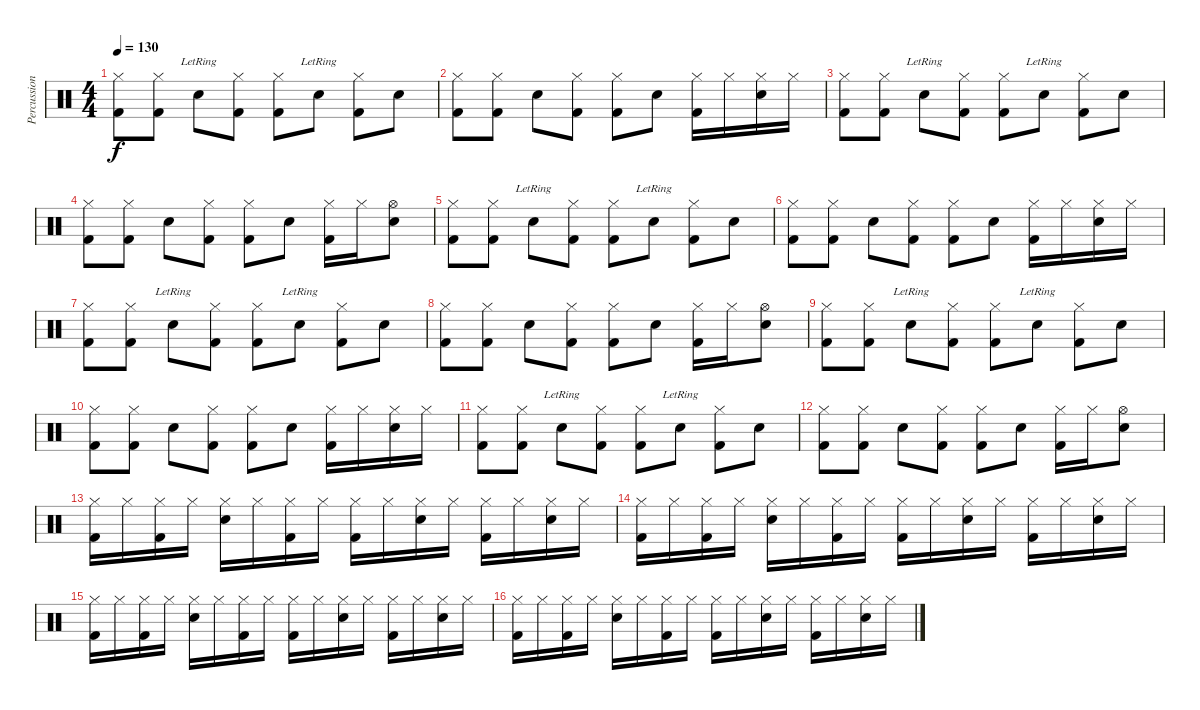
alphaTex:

\track ("Percussion" "Percussion") {instrument percussion}
\staff {score}
\articulation defaults
\ts (4 4)
\tempo 130
\clef neutral
\ks c
("Hi-Hat (closed)" "Kick (hit) 2").8{dy f} ("Hi-Hat (closed)" "Kick (hit) 2").8 "Snare (hit) 2"{lr}.8 ("Hi-Hat (closed)" "Kick (hit) 2").8 ("Hi-Hat (closed)" "Kick (hit) 2").8 "Snare (hit) 2"{lr}.8 ("Hi-Hat (closed)" "Kick (hit) 2").8 "Snare (hit) 2".8 |
("Hi-Hat (closed)" "Kick (hit) 2").8 ("Hi-Hat (closed)" "Kick (hit) 2").8 "Snare (hit) 2".8 ("Hi-Hat (closed)" "Kick (hit) 2").8 ("Hi-Hat (closed)" "Kick (hit) 2").8 "Snare (hit) 2".8 ("Hi-Hat (closed)" "Kick (hit) 2").16 "Hi-Hat (closed)".16 ("Hi-Hat (closed)" "Snare (hit) 2").16 "Hi-Hat (closed)".16 |
("Hi-Hat (closed)" "Kick (hit) 2").8 ("Hi-Hat (closed)" "Kick (hit) 2").8 "Snare (hit) 2"{lr}.8 ("Hi-Hat (closed)" "Kick (hit) 2").8 ("Hi-Hat (closed)" "Kick (hit) 2").8 "Snare (hit) 2"{lr}.8 ("Hi-Hat (closed)" "Kick (hit) 2").8 "Snare (hit) 2".8 |
("Hi-Hat (closed)" "Kick (hit) 2").8 ("Hi-Hat (closed)" "Kick (hit) 2").8 "Snare (hit) 2".8 ("Hi-Hat (closed)" "Kick (hit) 2").8 ("Hi-Hat (closed)" "Kick (hit) 2").8 "Snare (hit) 2".8 ("Hi-Hat (closed)" "Kick (hit) 2").16 "Hi-Hat (closed)".16 ("Hi-Hat (open)" "Snare (hit) 2").8 |
("Hi-Hat (closed)" "Kick (hit) 2").8 ("Hi-Hat (closed)" "Kick (hit) 2").8 "Snare (hit) 2"{lr}.8 ("Hi-Hat (closed)" "Kick (hit) 2").8 ("Hi-Hat (closed)" "Kick (hit) 2").8 "Snare (hit) 2"{lr}.8 ("Hi-Hat (closed)" "Kick (hit) 2").8 "Snare (hit) 2".8 |
("Hi-Hat (closed)" "Kick (hit) 2").8 ("Hi-Hat (closed)" "Kick (hit) 2").8 "Snare (hit) 2".8 ("Hi-Hat (closed)" "Kick (hit) 2").8 ("Hi-Hat (closed)" "Kick (hit) 2").8 "Snare (hit) 2".8 ("Hi-Hat (closed)" "Kick (hit) 2").16 "Hi-Hat (closed)".16 ("Hi-Hat (closed)" "Snare (hit) 2").16 "Hi-Hat (closed)".16 |
("Hi-Hat (closed)" "Kick (hit) 2").8 ("Hi-Hat (closed)" "Kick (hit) 2").8 "Snare (hit) 2"{lr}.8 ("Hi-Hat (closed)" "Kick (hit) 2").8 ("Hi-Hat (closed)" "Kick (hit) 2").8 "Snare (hit) 2"{lr}.8 ("Hi-Hat (closed)" "Kick (hit) 2").8 "Snare (hit) 2".8 |
("Hi-Hat (closed)" "Kick (hit) 2").8 ("Hi-Hat (closed)" "Kick (hit) 2").8 "Snare (hit) 2".8 ("Hi-Hat (closed)" "Kick (hit) 2").8 ("Hi-Hat (closed)" "Kick (hit) 2").8 "Snare (hit) 2".8 ("Hi-Hat (closed)" "Kick (hit) 2").16 "Hi-Hat (closed)".16 ("Hi-Hat (open)" "Snare (hit) 2").8 |
("Hi-Hat (closed)" "Kick (hit) 2").8 ("Hi-Hat (closed)" "Kick (hit) 2").8 "Snare (hit) 2"{lr}.8 ("Hi-Hat (closed)" "Kick (hit) 2").8 ("Hi-Hat (closed)" "Kick (hit) 2").8 "Snare (hit) 2"{lr}.8 ("Hi-Hat (closed)" "Kick (hit) 2").8 "Snare (hit) 2".8 |
("Hi-Hat (closed)" "Kick (hit) 2").8 ("Hi-Hat (closed)" "Kick (hit) 2").8 "Snare (hit) 2".8 ("Hi-Hat (closed)" "Kick (hit) 2").8 ("Hi-Hat (closed)" "Kick (hit) 2").8 "Snare (hit) 2".8 ("Hi-Hat (closed)" "Kick (hit) 2").16 "Hi-Hat (closed)".16 ("Hi-Hat (closed)" "Snare (hit) 2").16 "Hi-Hat (closed)".16 |
("Hi-Hat (closed)" "Kick (hit) 2").8 ("Hi-Hat (closed)" "Kick (hit) 2").8 "Snare (hit) 2"{lr}.8 ("Hi-Hat (closed)" "Kick (hit) 2").8 ("Hi-Hat (closed)" "Kick (hit) 2").8 "Snare (hit) 2"{lr}.8 ("Hi-Hat (closed)" "Kick (hit) 2").8 "Snare (hit) 2".8 |
("Hi-Hat (closed)" "Kick (hit) 2").8 ("Hi-Hat (closed)" "Kick (hit) 2").8 "Snare (hit) 2".8 ("Hi-Hat (closed)" "Kick (hit) 2").8 ("Hi-Hat (closed)" "Kick (hit) 2").8 "Snare (hit) 2".8 ("Hi-Hat (closed)" "Kick (hit) 2").16 "Hi-Hat (closed)".16 ("Hi-Hat (open)" "Snare (hit) 2").8 |
("Hi-Hat (closed)" "Kick (hit) 2").16 "Hi-Hat (closed)".16 ("Hi-Hat (closed)" "Kick (hit) 2").16 "Hi-Hat (closed)".16 ("Hi-Hat (closed)" "Snare (hit) 2").16 "Hi-Hat (closed)".16 ("Hi-Hat (closed)" "Kick (hit) 2").16 "Hi-Hat (closed)".16 ("Hi-Hat (closed)" "Kick (hit) 2").16 "Hi-Hat (closed)".16 ("Hi-Hat (closed)" "Snare (hit) 2").16 "Hi-Hat (closed)".16 ("Hi-Hat (closed)" "Kick (hit) 2").16 "Hi-Hat (closed)".16 ("Hi-Hat (closed)" "Snare (hit) 2").16 "Hi-Hat (closed)".16 |
("Hi-Hat (closed)" "Kick (hit) 2").16 "Hi-Hat (closed)".16 ("Hi-Hat (closed)" "Kick (hit) 2").16 "Hi-Hat (closed)".16 ("Hi-Hat (closed)" "Snare (hit) 2").16 "Hi-Hat (closed)".16 ("Hi-Hat (closed)" "Kick (hit) 2").16 "Hi-Hat (closed)".16 ("Hi-Hat (closed)" "Kick (hit) 2").16 "Hi-Hat (closed)".16 ("Hi-Hat (closed)" "Snare (hit) 2").16 "Hi-Hat (closed)".16 ("Hi-Hat (closed)" "Kick (hit) 2").16 "Hi-Hat (closed)".16 ("Hi-Hat (closed)" "Snare (hit) 2").16 "Hi-Hat (closed)".16 |
("Hi-Hat (closed)" "Kick (hit) 2").16 "Hi-Hat (closed)".16 ("Hi-Hat (closed)" "Kick (hit) 2").16 "Hi-Hat (closed)".16 ("Hi-Hat (closed)" "Snare (hit) 2").16 "Hi-Hat (closed)".16 ("Hi-Hat (closed)" "Kick (hit) 2").16 "Hi-Hat (closed)".16 ("Hi-Hat (closed)" "Kick (hit) 2").16 "Hi-Hat (closed)".16 ("Hi-Hat (closed)" "Snare (hit) 2").16 "Hi-Hat (closed)".16 ("Hi-Hat (closed)" "Kick (hit) 2").16 "Hi-Hat (closed)".16 ("Hi-Hat (closed)" "Snare (hit) 2").16 "Hi-Hat (closed)".16 |
("Hi-Hat (closed)" "Kick (hit) 2").16 "Hi-Hat (closed)".16 ("Hi-Hat (closed)" "Kick (hit) 2").16 "Hi-Hat (closed)".16 ("Hi-Hat (closed)" "Snare (hit) 2").16 "Hi-Hat (closed)".16 ("Hi-Hat (closed)" "Kick (hit) 2").16 "Hi-Hat (closed)".16 ("Hi-Hat (closed)" "Kick (hit) 2").16 "Hi-Hat (closed)".16 ("Hi-Hat (closed)" "Snare (hit) 2").16 "Hi-Hat (closed)".16 ("Hi-Hat (closed)" "Kick (hit) 2").16 "Hi-Hat (closed)".16 ("Hi-Hat (closed)" "Snare (hit) 2").16 "Hi-Hat (closed)".16
